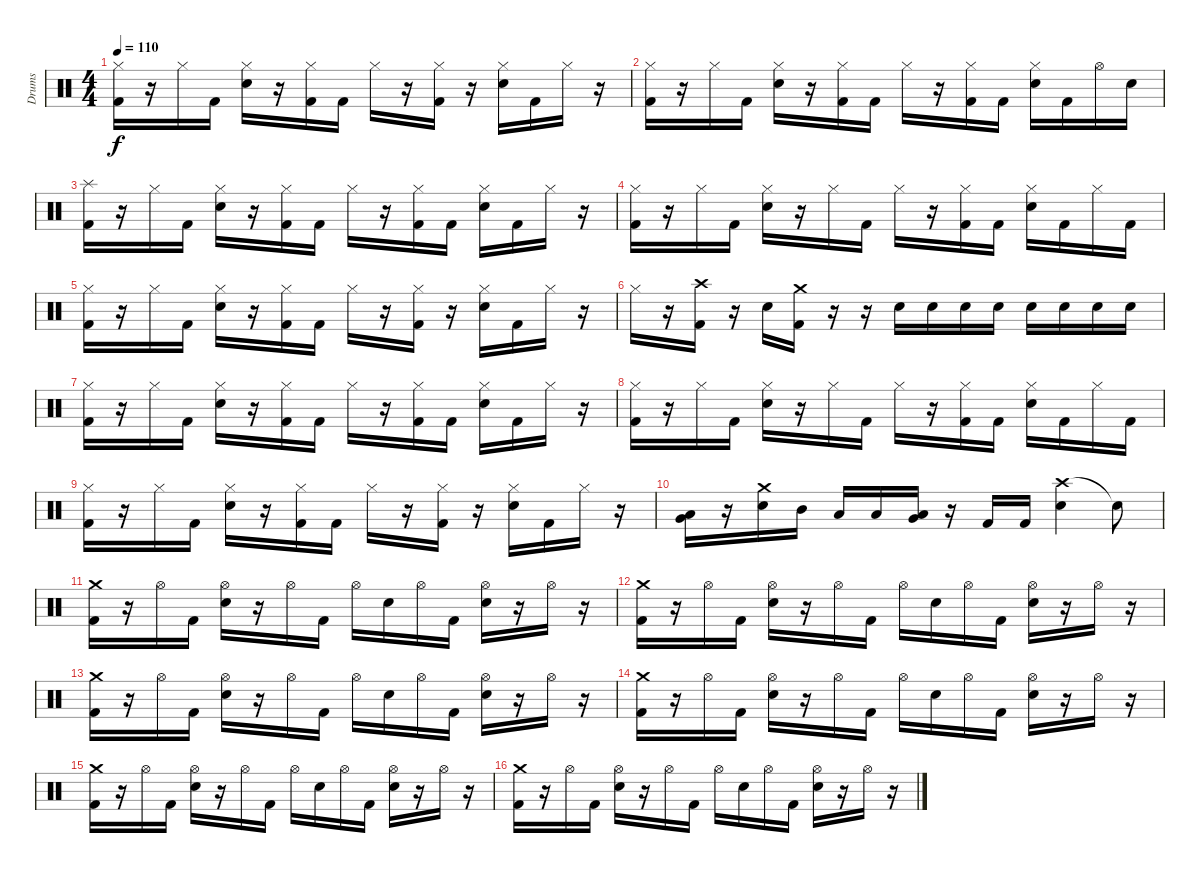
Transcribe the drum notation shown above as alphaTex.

\track ("Drums" "Drums") {instrument percussion}
\staff {score}
\articulation defaults
\ts (4 4)
\tempo 110
\clef neutral
\ks c
("Hi-Hat (closed)" "Kick (hit) 2").16{dy f} r.16 "Hi-Hat (closed)".16 "Kick (hit) 2".16 ("Hi-Hat (closed)" "Electric Snare (hit)").16 r.16 ("Hi-Hat (closed)" "Kick (hit) 2").16 "Kick (hit) 2".16 "Hi-Hat (closed)".16 r.16 ("Hi-Hat (closed)" "Kick (hit) 2").16 r.16 ("Hi-Hat (closed)" "Electric Snare (hit)").16 "Kick (hit) 2".16 "Hi-Hat (closed)".16 r.16 |
("Hi-Hat (closed)" "Kick (hit) 2").16 r.16 "Hi-Hat (closed)".16 "Kick (hit) 2".16 ("Hi-Hat (closed)" "Electric Snare (hit)").16 r.16 ("Hi-Hat (closed)" "Kick (hit) 2").16 "Kick (hit) 2".16 "Hi-Hat (closed)".16 r.16 ("Hi-Hat (closed)" "Kick (hit) 2").16 "Kick (hit) 2".16 ("Hi-Hat (closed)" "Electric Snare (hit)").16 "Kick (hit) 2".16 "Hi-Hat (open)".16 "Electric Snare (hit)".16 |
("Splash (hit)" "Kick (hit) 2").16 r.16 "Hi-Hat (closed)".16 "Kick (hit) 2".16 ("Hi-Hat (closed)" "Electric Snare (hit)").16 r.16 ("Hi-Hat (closed)" "Kick (hit) 2").16 "Kick (hit) 2".16 "Hi-Hat (closed)".16 r.16 ("Hi-Hat (closed)" "Kick (hit) 2").16 "Kick (hit) 2".16 ("Hi-Hat (closed)" "Electric Snare (hit)").16 "Kick (hit) 2".16 "Hi-Hat (closed)".16 r.16 |
("Hi-Hat (closed)" "Kick (hit) 2").16 r.16 "Hi-Hat (closed)".16 "Kick (hit) 2".16 ("Hi-Hat (closed)" "Electric Snare (hit)").16 r.16 "Hi-Hat (closed)".16 "Kick (hit) 2".16 "Hi-Hat (closed)".16 r.16 ("Hi-Hat (closed)" "Kick (hit) 2").16 "Kick (hit) 2".16 ("Hi-Hat (closed)" "Electric Snare (hit)").16 "Kick (hit) 2".16 "Hi-Hat (closed)".16 "Kick (hit) 2".16 |
("Hi-Hat (closed)" "Kick (hit) 2").16 r.16 "Hi-Hat (closed)".16 "Kick (hit) 2".16 ("Hi-Hat (closed)" "Electric Snare (hit)").16 r.16 ("Hi-Hat (closed)" "Kick (hit) 2").16 "Kick (hit) 2".16 "Hi-Hat (closed)".16 r.16 ("Hi-Hat (closed)" "Kick (hit) 2").16 r.16 ("Hi-Hat (closed)" "Electric Snare (hit)").16 "Kick (hit) 2".16 "Hi-Hat (closed)".16 r.16 |
"Hi-Hat (closed)".16 r.16 ("Crash high (hit)" "Kick (hit) 2").16 r.16 "Electric Snare (hit)".16 ("Crash medium (hit)" "Kick (hit) 2").16 r.16 r.16 "Electric Snare (hit)".16 "Electric Snare (hit)".16 "Electric Snare (hit)".16 "Electric Snare (hit)".16 "Electric Snare (hit)".16 "Electric Snare (hit)".16 "Electric Snare (hit)".16 "Electric Snare (hit)".16 |
("Hi-Hat (closed)" "Kick (hit) 2").16 r.16 "Hi-Hat (closed)".16 "Kick (hit) 2".16 ("Hi-Hat (closed)" "Electric Snare (hit)").16 r.16 ("Hi-Hat (closed)" "Kick (hit) 2").16 "Kick (hit) 2".16 "Hi-Hat (closed)".16 r.16 ("Hi-Hat (closed)" "Kick (hit) 2").16 "Kick (hit) 2".16 ("Hi-Hat (closed)" "Electric Snare (hit)").16 "Kick (hit) 2".16 "Hi-Hat (closed)".16 r.16 |
("Hi-Hat (closed)" "Kick (hit) 2").16 r.16 "Hi-Hat (closed)".16 "Kick (hit) 2".16 ("Hi-Hat (closed)" "Electric Snare (hit)").16 r.16 "Hi-Hat (closed)".16 "Kick (hit) 2".16 "Hi-Hat (closed)".16 r.16 ("Hi-Hat (closed)" "Kick (hit) 2").16 "Kick (hit) 2".16 ("Hi-Hat (closed)" "Electric Snare (hit)").16 "Kick (hit) 2".16 "Hi-Hat (closed)".16 "Kick (hit) 2".16 |
("Hi-Hat (closed)" "Kick (hit) 2").16 r.16 "Hi-Hat (closed)".16 "Kick (hit) 2".16 ("Hi-Hat (closed)" "Electric Snare (hit)").16 r.16 ("Hi-Hat (closed)" "Kick (hit) 2").16 "Kick (hit) 2".16 "Hi-Hat (closed)".16 r.16 ("Hi-Hat (closed)" "Kick (hit) 2").16 r.16 ("Hi-Hat (closed)" "Electric Snare (hit)").16 "Kick (hit) 2".16 "Hi-Hat (closed)".16 r.16 |
("Low Tom (hit)" "Very Low Tom (hit)").16 r.16 ("Crash medium (hit)" "Electric Snare (hit)").16 "Mid Tom (hit)".16 "Low Tom (hit)".16 "Low Tom (hit)".16 ("Very Low Tom (hit)" "Low Floor Tom (hit)").16 r.16 "Kick (hit) 2".16 "Kick (hit) 2".16 ("Crash high (hit)" "Electric Snare (hit)").4 "Snare (hit)"{t}.8 |
("Crash medium (hit)" "Kick (hit) 2").16 r.16 "Hi-Hat (open)".16 "Kick (hit) 2".16 ("Hi-Hat (open)" "Electric Snare (hit)").16 r.16 "Hi-Hat (open)".16 "Kick (hit) 2".16 "Hi-Hat (open)".16 "Electric Snare (hit)".16 "Hi-Hat (open)".16 "Kick (hit) 2".16 ("Hi-Hat (open)" "Electric Snare (hit)").16 r.16 "Hi-Hat (open)".16 r.16 |
("Crash medium (hit)" "Kick (hit) 2").16 r.16 "Hi-Hat (open)".16 "Kick (hit) 2".16 ("Hi-Hat (open)" "Electric Snare (hit)").16 r.16 "Hi-Hat (open)".16 "Kick (hit) 2".16 "Hi-Hat (open)".16 "Electric Snare (hit)".16 "Hi-Hat (open)".16 "Kick (hit) 2".16 ("Hi-Hat (open)" "Electric Snare (hit)").16 r.16 "Hi-Hat (open)".16 r.16 |
("Crash medium (hit)" "Kick (hit) 2").16 r.16 "Hi-Hat (open)".16 "Kick (hit) 2".16 ("Hi-Hat (open)" "Electric Snare (hit)").16 r.16 "Hi-Hat (open)".16 "Kick (hit) 2".16 "Hi-Hat (open)".16 "Electric Snare (hit)".16 "Hi-Hat (open)".16 "Kick (hit) 2".16 ("Hi-Hat (open)" "Electric Snare (hit)").16 r.16 "Hi-Hat (open)".16 r.16 |
("Crash medium (hit)" "Kick (hit) 2").16 r.16 "Hi-Hat (open)".16 "Kick (hit) 2".16 ("Hi-Hat (open)" "Electric Snare (hit)").16 r.16 "Hi-Hat (open)".16 "Kick (hit) 2".16 "Hi-Hat (open)".16 "Electric Snare (hit)".16 "Hi-Hat (open)".16 "Kick (hit) 2".16 ("Hi-Hat (open)" "Electric Snare (hit)").16 r.16 "Hi-Hat (open)".16 r.16 |
("Crash medium (hit)" "Kick (hit) 2").16 r.16 "Hi-Hat (open)".16 "Kick (hit) 2".16 ("Hi-Hat (open)" "Electric Snare (hit)").16 r.16 "Hi-Hat (open)".16 "Kick (hit) 2".16 "Hi-Hat (open)".16 "Electric Snare (hit)".16 "Hi-Hat (open)".16 "Kick (hit) 2".16 ("Hi-Hat (open)" "Electric Snare (hit)").16 r.16 "Hi-Hat (open)".16 r.16 |
("Crash medium (hit)" "Kick (hit) 2").16 r.16 "Hi-Hat (open)".16 "Kick (hit) 2".16 ("Hi-Hat (open)" "Electric Snare (hit)").16 r.16 "Hi-Hat (open)".16 "Kick (hit) 2".16 "Hi-Hat (open)".16 "Electric Snare (hit)".16 "Hi-Hat (open)".16 "Kick (hit) 2".16 ("Hi-Hat (open)" "Electric Snare (hit)").16 r.16 "Hi-Hat (open)".16 r.16
